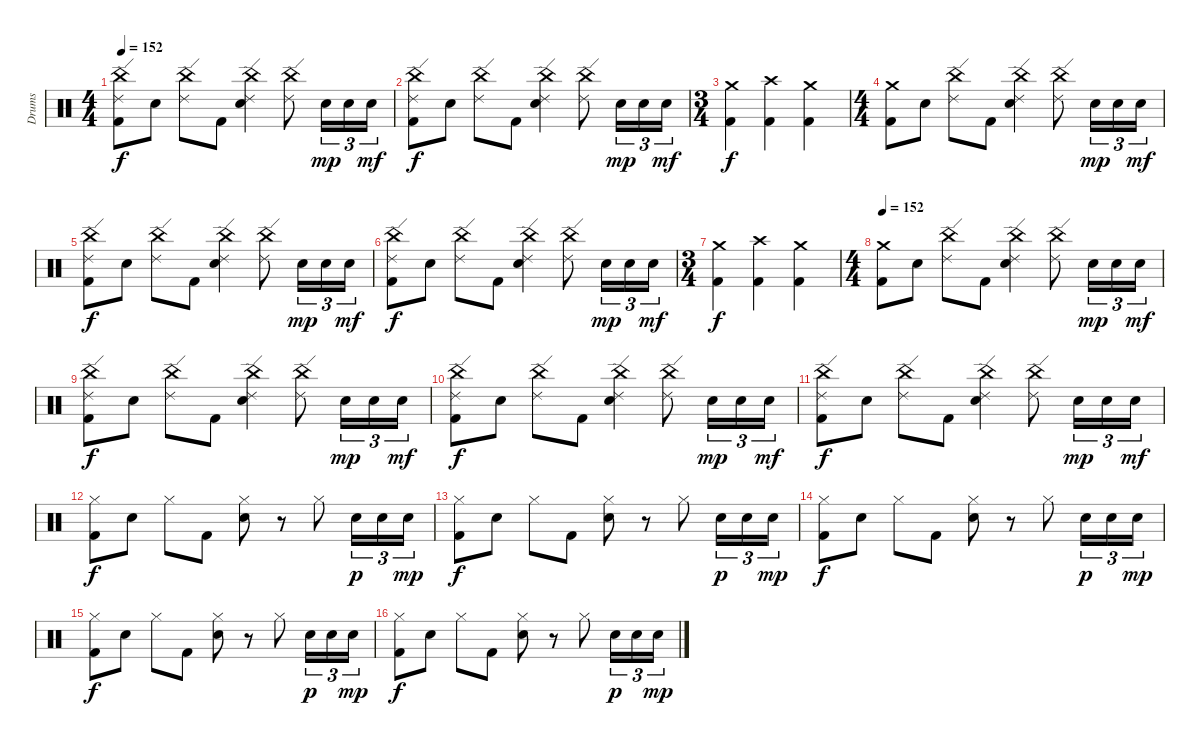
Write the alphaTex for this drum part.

\track ("Drums" "Drums") {instrument percussion}
\staff {score}
\articulation defaults
\ts (4 4)
\tempo 152
\clef neutral
\ks c
("China (hit)" "Ride (edge) 2" "Kick (hit) 2").8{dy f} "Snare (hit) 2".8 ("China (hit)" "Ride (edge) 2").8 "Kick (hit) 2".8 ("China (hit)" "Ride (edge) 2" "Snare (hit) 2").4 ("China (hit)" "Ride (edge) 2").8 "Snare (hit) 2".16{tu (3 2) dy mp} "Snare (hit) 2".16{tu (3 2)} "Snare (hit) 2".16{tu (3 2) dy mf} |
("China (hit)" "Ride (edge) 2" "Kick (hit) 2").8{dy f} "Snare (hit) 2".8 ("China (hit)" "Ride (edge) 2").8 "Kick (hit) 2".8 ("China (hit)" "Ride (edge) 2" "Snare (hit) 2").4 ("China (hit)" "Ride (edge) 2").8 "Snare (hit) 2".16{tu (3 2) dy mp} "Snare (hit) 2".16{tu (3 2)} "Snare (hit) 2".16{tu (3 2) dy mf} |
\ts (3 4)
("Crash medium (hit)" "Kick (hit) 2").4{dy f} ("Crash high (hit)" "Kick (hit) 2").4 ("Crash medium (hit)" "Kick (hit) 2").4 |
\ts (4 4)
("Crash medium (hit)" "Kick (hit) 2").8 "Snare (hit) 2".8 ("China (hit)" "Ride (edge) 2").8 "Kick (hit) 2".8 ("China (hit)" "Ride (edge) 2" "Snare (hit) 2").4 ("China (hit)" "Ride (edge) 2").8 "Snare (hit) 2".16{tu (3 2) dy mp} "Snare (hit) 2".16{tu (3 2)} "Snare (hit) 2".16{tu (3 2) dy mf} |
("China (hit)" "Ride (edge) 2" "Kick (hit) 2").8{dy f} "Snare (hit) 2".8 ("China (hit)" "Ride (edge) 2").8 "Kick (hit) 2".8 ("China (hit)" "Ride (edge) 2" "Snare (hit) 2").4 ("China (hit)" "Ride (edge) 2").8 "Snare (hit) 2".16{tu (3 2) dy mp} "Snare (hit) 2".16{tu (3 2)} "Snare (hit) 2".16{tu (3 2) dy mf} |
("China (hit)" "Ride (edge) 2" "Kick (hit) 2").8{dy f} "Snare (hit) 2".8 ("China (hit)" "Ride (edge) 2").8 "Kick (hit) 2".8 ("China (hit)" "Ride (edge) 2" "Snare (hit) 2").4 ("China (hit)" "Ride (edge) 2").8 "Snare (hit) 2".16{tu (3 2) dy mp} "Snare (hit) 2".16{tu (3 2)} "Snare (hit) 2".16{tu (3 2) dy mf} |
\ts (3 4)
("Crash medium (hit)" "Kick (hit) 2").4{dy f} ("Crash high (hit)" "Kick (hit) 2").4 ("Crash medium (hit)" "Kick (hit) 2").4 |
\ts (4 4)
\tempo 152
("Crash medium (hit)" "Kick (hit) 2").8 "Snare (hit) 2".8 ("China (hit)" "Ride (edge) 2").8 "Kick (hit) 2".8 ("China (hit)" "Ride (edge) 2" "Snare (hit) 2").4 ("China (hit)" "Ride (edge) 2").8 "Snare (hit) 2".16{tu (3 2) dy mp} "Snare (hit) 2".16{tu (3 2)} "Snare (hit) 2".16{tu (3 2) dy mf} |
("China (hit)" "Ride (edge) 2" "Kick (hit) 2").8{dy f} "Snare (hit) 2".8 ("China (hit)" "Ride (edge) 2").8 "Kick (hit) 2".8 ("China (hit)" "Ride (edge) 2" "Snare (hit) 2").4 ("China (hit)" "Ride (edge) 2").8 "Snare (hit) 2".16{tu (3 2) dy mp} "Snare (hit) 2".16{tu (3 2)} "Snare (hit) 2".16{tu (3 2) dy mf} |
("China (hit)" "Ride (edge) 2" "Kick (hit) 2").8{dy f} "Snare (hit) 2".8 ("China (hit)" "Ride (edge) 2").8 "Kick (hit) 2".8 ("China (hit)" "Ride (edge) 2" "Snare (hit) 2").4 ("China (hit)" "Ride (edge) 2").8 "Snare (hit) 2".16{tu (3 2) dy mp} "Snare (hit) 2".16{tu (3 2)} "Snare (hit) 2".16{tu (3 2) dy mf} |
("China (hit)" "Ride (edge) 2" "Kick (hit) 2").8{dy f} "Snare (hit) 2".8 ("China (hit)" "Ride (edge) 2").8 "Kick (hit) 2".8 ("China (hit)" "Ride (edge) 2" "Snare (hit) 2").4 ("China (hit)" "Ride (edge) 2").8 "Snare (hit) 2".16{tu (3 2) dy mp} "Snare (hit) 2".16{tu (3 2)} "Snare (hit) 2".16{tu (3 2) dy mf} |
("Hi-Hat (closed)" "Kick (hit) 2").8{dy f volume 11} "Snare (hit) 2".8 "Hi-Hat (closed)".8 "Kick (hit) 2".8 ("Hi-Hat (closed)" "Snare (hit) 2").8 r.8 "Hi-Hat (closed)".8 "Snare (hit) 2".16{tu (3 2) dy p} "Snare (hit) 2".16{tu (3 2)} "Snare (hit) 2".16{tu (3 2) dy mp} |
("Hi-Hat (closed)" "Kick (hit) 2").8{dy f} "Snare (hit) 2".8 "Hi-Hat (closed)".8 "Kick (hit) 2".8 ("Hi-Hat (closed)" "Snare (hit) 2").8 r.8 "Hi-Hat (closed)".8 "Snare (hit) 2".16{tu (3 2) dy p} "Snare (hit) 2".16{tu (3 2)} "Snare (hit) 2".16{tu (3 2) dy mp} |
("Hi-Hat (closed)" "Kick (hit) 2").8{dy f} "Snare (hit) 2".8 "Hi-Hat (closed)".8 "Kick (hit) 2".8 ("Hi-Hat (closed)" "Snare (hit) 2").8 r.8 "Hi-Hat (closed)".8 "Snare (hit) 2".16{tu (3 2) dy p} "Snare (hit) 2".16{tu (3 2)} "Snare (hit) 2".16{tu (3 2) dy mp} |
("Hi-Hat (closed)" "Kick (hit) 2").8{dy f} "Snare (hit) 2".8 "Hi-Hat (closed)".8 "Kick (hit) 2".8 ("Hi-Hat (closed)" "Snare (hit) 2").8 r.8 "Hi-Hat (closed)".8 "Snare (hit) 2".16{tu (3 2) dy p} "Snare (hit) 2".16{tu (3 2)} "Snare (hit) 2".16{tu (3 2) dy mp} |
("Hi-Hat (closed)" "Kick (hit) 2").8{dy f volume 11} "Snare (hit) 2".8 "Hi-Hat (closed)".8 "Kick (hit) 2".8 ("Hi-Hat (closed)" "Snare (hit) 2").8 r.8 "Hi-Hat (closed)".8 "Snare (hit) 2".16{tu (3 2) dy p} "Snare (hit) 2".16{tu (3 2)} "Snare (hit) 2".16{tu (3 2) dy mp}
